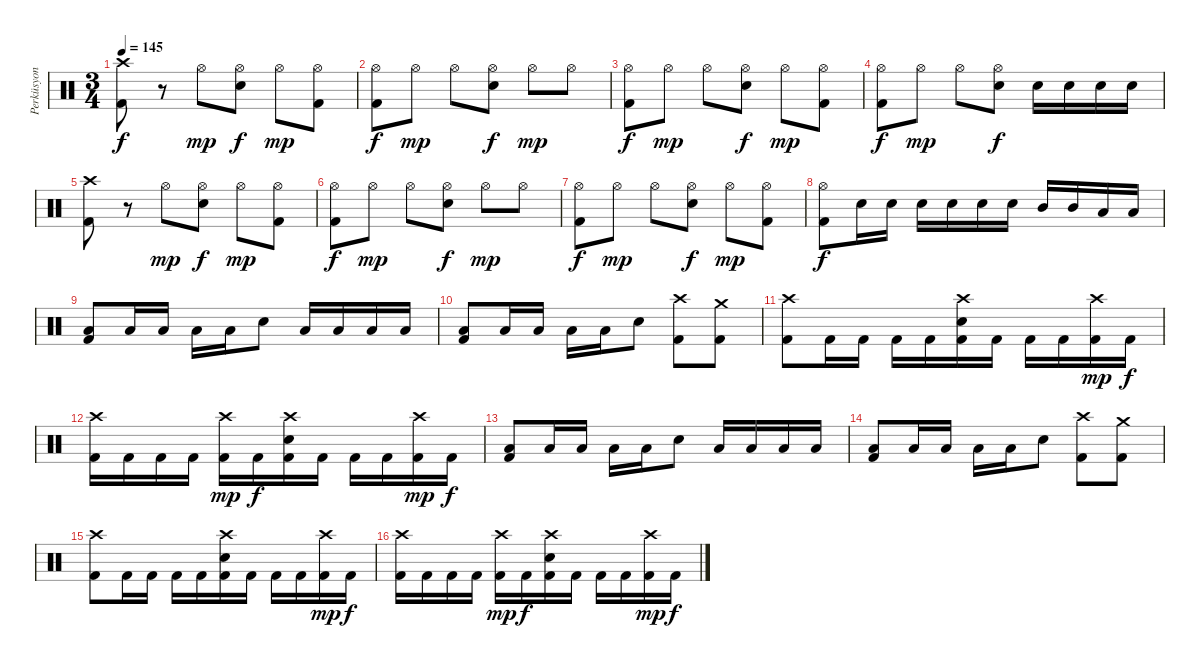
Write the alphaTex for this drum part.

\track ("Perküsyon" "Perküsyon") {instrument percussion}
\staff {score}
\articulation defaults
\ts (3 4)
\tempo 145
\clef neutral
\ks c
("Crash high (hit)" "Kick (hit) 2").8{dy f} r.8 "Hi-Hat (open)".8{dy mp} ("Snare (hit) 2" "Hi-Hat (open)").8{dy f} "Hi-Hat (open)".8{dy mp} ("Hi-Hat (open)" "Kick (hit) 2").8 |
("Hi-Hat (open)" "Kick (hit) 2").8{dy f} "Hi-Hat (open)".8{dy mp} "Hi-Hat (open)".8 ("Snare (hit) 2" "Hi-Hat (open)").8{dy f} "Hi-Hat (open)".8{dy mp} "Hi-Hat (open)".8 |
("Hi-Hat (open)" "Kick (hit) 2").8{dy f} "Hi-Hat (open)".8{dy mp} "Hi-Hat (open)".8 ("Snare (hit) 2" "Hi-Hat (open)").8{dy f} "Hi-Hat (open)".8{dy mp} ("Hi-Hat (open)" "Kick (hit) 2").8 |
("Hi-Hat (open)" "Kick (hit) 2").8{dy f} "Hi-Hat (open)".8{dy mp} "Hi-Hat (open)".8 ("Snare (hit) 2" "Hi-Hat (open)").8{dy f} "Snare (hit) 2".16 "Snare (hit) 2".16 "Snare (hit) 2".16 "Snare (hit) 2".16 |
("Crash high (hit)" "Kick (hit) 2").8 r.8 "Hi-Hat (open)".8{dy mp} ("Snare (hit) 2" "Hi-Hat (open)").8{dy f} "Hi-Hat (open)".8{dy mp} ("Hi-Hat (open)" "Kick (hit) 2").8 |
("Hi-Hat (open)" "Kick (hit) 2").8{dy f} "Hi-Hat (open)".8{dy mp} "Hi-Hat (open)".8 ("Snare (hit) 2" "Hi-Hat (open)").8{dy f} "Hi-Hat (open)".8{dy mp} "Hi-Hat (open)".8 |
("Hi-Hat (open)" "Kick (hit) 2").8{dy f} "Hi-Hat (open)".8{dy mp} "Hi-Hat (open)".8 ("Snare (hit) 2" "Hi-Hat (open)").8{dy f} "Hi-Hat (open)".8{dy mp} ("Hi-Hat (open)" "Kick (hit) 2").8 |
("Hi-Hat (open)" "Kick (hit) 2").8{dy f} "Snare (hit) 2".16 "Snare (hit) 2".16 "Snare (hit) 2".16 "Snare (hit) 2".16 "Snare (hit) 2".16 "Snare (hit) 2".16 "Mid Tom (hit)".16 "Mid Tom (hit)".16 "Low Tom (hit)".16 "Low Tom (hit)".16 |
("Low Tom (hit)" "Kick (hit) 2").8 "Low Tom (hit)".16 "Low Tom (hit)".16 "Low Tom (hit)".16 "Low Tom (hit)".16 "Snare (hit) 2".8 "Low Tom (hit)".16 "Low Tom (hit)".16 "Low Tom (hit)".16 "Low Tom (hit)".16 |
("Low Tom (hit)" "Kick (hit) 2").8 "Low Tom (hit)".16 "Low Tom (hit)".16 "Low Tom (hit)".16 "Low Tom (hit)".16 "Snare (hit) 2".8 ("Crash high (hit)" "Kick (hit) 2").8 ("Crash medium (hit)" "Kick (hit) 2").8 |
("Crash high (hit)" "Kick (hit) 2").8 "Kick (hit) 2".16 "Kick (hit) 2".16 "Kick (hit) 2".16 "Kick (hit) 2".16 ("Crash high (hit)" "Snare (hit) 2" "Kick (hit) 2").16 "Kick (hit) 2".16 "Kick (hit) 2".16 "Kick (hit) 2".16 ("Crash high (hit)" "Kick (hit) 2").16{dy mp} "Kick (hit) 2".16{dy f} |
("Crash high (hit)" "Kick (hit) 2").16 "Kick (hit) 2".16 "Kick (hit) 2".16 "Kick (hit) 2".16 ("Crash high (hit)" "Kick (hit) 2").16{dy mp} "Kick (hit) 2".16{dy f} ("Crash high (hit)" "Snare (hit) 2" "Kick (hit) 2").16 "Kick (hit) 2".16 "Kick (hit) 2".16 "Kick (hit) 2".16 ("Crash high (hit)" "Kick (hit) 2").16{dy mp} "Kick (hit) 2".16{dy f} |
("Low Tom (hit)" "Kick (hit) 2").8 "Low Tom (hit)".16 "Low Tom (hit)".16 "Low Tom (hit)".16 "Low Tom (hit)".16 "Snare (hit) 2".8 "Low Tom (hit)".16 "Low Tom (hit)".16 "Low Tom (hit)".16 "Low Tom (hit)".16 |
("Low Tom (hit)" "Kick (hit) 2").8 "Low Tom (hit)".16 "Low Tom (hit)".16 "Low Tom (hit)".16 "Low Tom (hit)".16 "Snare (hit) 2".8 ("Crash high (hit)" "Kick (hit) 2").8 ("Crash medium (hit)" "Kick (hit) 2").8 |
("Crash high (hit)" "Kick (hit) 2").8 "Kick (hit) 2".16 "Kick (hit) 2".16 "Kick (hit) 2".16 "Kick (hit) 2".16 ("Crash high (hit)" "Snare (hit) 2" "Kick (hit) 2").16 "Kick (hit) 2".16 "Kick (hit) 2".16 "Kick (hit) 2".16 ("Crash high (hit)" "Kick (hit) 2").16{dy mp} "Kick (hit) 2".16{dy f} |
("Crash high (hit)" "Kick (hit) 2").16 "Kick (hit) 2".16 "Kick (hit) 2".16 "Kick (hit) 2".16 ("Crash high (hit)" "Kick (hit) 2").16{dy mp} "Kick (hit) 2".16{dy f} ("Crash high (hit)" "Snare (hit) 2" "Kick (hit) 2").16 "Kick (hit) 2".16 "Kick (hit) 2".16 "Kick (hit) 2".16 ("Crash high (hit)" "Kick (hit) 2").16{dy mp} "Kick (hit) 2".16{dy f}
